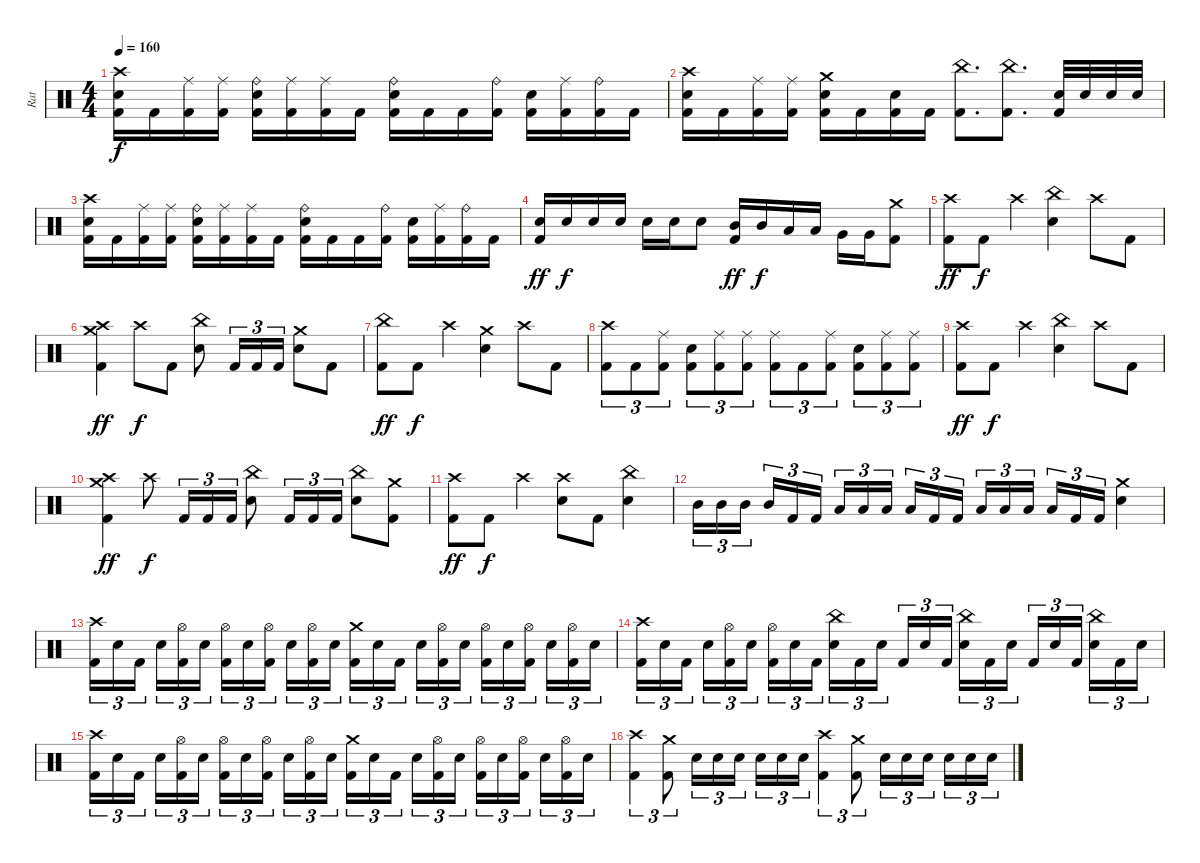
\track ("Rat" "Rat") {instrument percussion}
\staff {score}
\articulation defaults
\ts (4 4)
\tempo 160
\clef neutral
\ks c
("Crash high (hit)" "Electric Snare (hit)" "Kick (hit) 2").16{dy f} "Kick (hit) 2".16 ("Ride (middle)" "Kick (hit) 2").16 ("Ride (middle)" "Kick (hit) 2").16 ("Ride (bell)" "Electric Snare (hit)" "Kick (hit) 2").16 ("Ride (middle)" "Kick (hit) 2").16 ("Ride (middle)" "Kick (hit) 2").16 "Kick (hit) 2".16 ("Ride (bell)" "Electric Snare (hit)" "Kick (hit) 2").16 "Kick (hit) 2".16 "Kick (hit) 2".16 ("Ride (bell)" "Kick (hit) 2").16 ("Electric Snare (hit)" "Kick (hit) 2").16 ("Ride (middle)" "Kick (hit) 2").16 ("Ride (bell)" "Kick (hit) 2").16 "Kick (hit) 2".16 |
("Crash high (hit)" "Electric Snare (hit)" "Kick (hit) 2").16 "Kick (hit) 2".16 ("Ride (middle)" "Kick (hit) 2").16 ("Ride (middle)" "Kick (hit) 2").16 ("Crash medium (hit)" "Electric Snare (hit)" "Kick (hit) 2").16 "Kick (hit) 2".16 ("Electric Snare (hit)" "Kick (hit) 2").16 "Kick (hit) 2".16 ("China (hit)" "Kick (hit) 2").8{d} ("China (hit)" "Kick (hit) 2").8{d} ("Electric Snare (hit)" "Kick (hit) 2").32 "Electric Snare (hit)".32 "Electric Snare (hit)".32 "Electric Snare (hit)".32 |
("Crash high (hit)" "Electric Snare (hit)" "Kick (hit) 2").16 "Kick (hit) 2".16 ("Ride (middle)" "Kick (hit) 2").16 ("Ride (middle)" "Kick (hit) 2").16 ("Ride (bell)" "Electric Snare (hit)" "Kick (hit) 2").16 ("Ride (middle)" "Kick (hit) 2").16 ("Ride (middle)" "Kick (hit) 2").16 "Kick (hit) 2".16 ("Ride (bell)" "Electric Snare (hit)" "Kick (hit) 2").16 "Kick (hit) 2".16 "Kick (hit) 2".16 ("Ride (bell)" "Kick (hit) 2").16 ("Electric Snare (hit)" "Kick (hit) 2").16 ("Ride (middle)" "Kick (hit) 2").16 ("Ride (bell)" "Kick (hit) 2").16 "Kick (hit) 2".16 |
("Electric Snare (hit)" "Kick (hit) 2").16{dy ff} "Electric Snare (hit)".16{dy f} "Electric Snare (hit)".16 "Electric Snare (hit)".16 "Electric Snare (hit)".16 "Electric Snare (hit)".16 "Electric Snare (hit)".8 ("Mid Tom (hit)" "Kick (hit) 2").16{dy ff} "Mid Tom (hit)".16{dy f} "Low Tom (hit)".16 "Low Tom (hit)".16 "Very Low Tom (hit)".16 "Very Low Tom (hit)".16 ("Crash medium (hit)" "Kick (hit) 2").8 |
("Crash high (hit)" "Kick (hit) 2").8{dy ff} "Kick (hit) 2".8{dy f} "Crash high (hit)".4 ("China (hit)" "Electric Snare (hit)").4 "Crash high (hit)".8 "Kick (hit) 2".8 |
("Crash high (hit)" "Crash medium (hit)" "Kick (hit) 2").4{dy ff} "Crash high (hit)".8{dy f} "Kick (hit) 2".8 ("China (hit)" "Electric Snare (hit)").8 "Kick (hit) 2".16{tu (3 2)} "Kick (hit) 2".16{tu (3 2)} "Kick (hit) 2".16{tu (3 2)} ("Crash medium (hit)" "Electric Snare (hit)").8 "Kick (hit) 2".8 |
("China (hit)" "Kick (hit) 2").8{dy ff} "Kick (hit) 2".8{dy f} "Crash high (hit)".4 ("Crash medium (hit)" "Electric Snare (hit)").4 "Crash high (hit)".8 "Kick (hit) 2".8 |
("Crash high (hit)" "Kick (hit) 2").8{tu (3 2)} "Kick (hit) 2".8{tu (3 2)} ("Ride (middle)" "Kick (hit) 2").8{tu (3 2)} ("Electric Snare (hit)" "Kick (hit) 2").8{tu (3 2)} ("Ride (middle)" "Kick (hit) 2").8{tu (3 2)} ("Ride (middle)" "Kick (hit) 2").8{tu (3 2)} ("Ride (middle)" "Kick (hit) 2").8{tu (3 2)} "Kick (hit) 2".8{tu (3 2)} ("Ride (middle)" "Kick (hit) 2").8{tu (3 2)} ("Electric Snare (hit)" "Kick (hit) 2").8{tu (3 2)} ("Ride (middle)" "Kick (hit) 2").8{tu (3 2)} ("Ride (middle)" "Kick (hit) 2").8{tu (3 2)} |
("Crash high (hit)" "Kick (hit) 2").8{dy ff} "Kick (hit) 2".8{dy f} "Crash high (hit)".4 ("China (hit)" "Electric Snare (hit)").4 "Crash high (hit)".8 "Kick (hit) 2".8 |
("Crash high (hit)" "Crash medium (hit)" "Kick (hit) 2").4{dy ff} "Crash high (hit)".8{dy f} "Kick (hit) 2".16{tu (3 2)} "Kick (hit) 2".16{tu (3 2)} "Kick (hit) 2".16{tu (3 2)} ("China (hit)" "Electric Snare (hit)").8 "Kick (hit) 2".16{tu (3 2)} "Kick (hit) 2".16{tu (3 2)} "Kick (hit) 2".16{tu (3 2)} ("China (hit)" "Electric Snare (hit)").8 ("Crash medium (hit)" "Kick (hit) 2").8 |
("Crash high (hit)" "Kick (hit) 2").8{dy ff} "Kick (hit) 2".8{dy f} "Crash high (hit)".4 ("Crash high (hit)" "Electric Snare (hit)").8 "Kick (hit) 2".8 ("China (hit)" "Electric Snare (hit)").4 |
"Mid Tom (hit)".16{tu (3 2)} "Mid Tom (hit)".16{tu (3 2)} "Mid Tom (hit)".16{tu (3 2) beam splitsecondary} "Mid Tom (hit)".16{tu (3 2)} "Kick (hit) 2".16{tu (3 2)} "Kick (hit) 2".16{tu (3 2)} "Low Tom (hit)".16{tu (3 2)} "Low Tom (hit)".16{tu (3 2)} "Low Tom (hit)".16{tu (3 2) beam splitsecondary} "Low Tom (hit)".16{tu (3 2)} "Kick (hit) 2".16{tu (3 2)} "Kick (hit) 2".16{tu (3 2)} "Low Tom (hit)".16{tu (3 2)} "Low Tom (hit)".16{tu (3 2)} "Low Tom (hit)".16{tu (3 2) beam splitsecondary} "Low Tom (hit)".16{tu (3 2)} "Kick (hit) 2".16{tu (3 2)} "Kick (hit) 2".16{tu (3 2)} ("Crash medium (hit)" "Electric Snare (hit)").4 |
("Crash high (hit)" "Kick (hit) 2").16{tu (3 2)} "Electric Snare (hit)".16{tu (3 2)} "Kick (hit) 2".16{tu (3 2) beam splitsecondary} "Electric Snare (hit)".16{tu (3 2)} ("Hi-Hat (open)" "Kick (hit) 2").16{tu (3 2)} "Electric Snare (hit)".16{tu (3 2)} ("Hi-Hat (open)" "Kick (hit) 2").16{tu (3 2)} "Electric Snare (hit)".16{tu (3 2)} ("Hi-Hat (open)" "Kick (hit) 2").16{tu (3 2) beam splitsecondary} "Electric Snare (hit)".16{tu (3 2)} ("Hi-Hat (open)" "Kick (hit) 2").16{tu (3 2)} "Electric Snare (hit)".16{tu (3 2)} ("Crash medium (hit)" "Kick (hit) 2").16{tu (3 2)} "Electric Snare (hit)".16{tu (3 2)} "Kick (hit) 2".16{tu (3 2) beam splitsecondary} "Electric Snare (hit)".16{tu (3 2)} ("Hi-Hat (open)" "Kick (hit) 2").16{tu (3 2)} "Electric Snare (hit)".16{tu (3 2)} ("Hi-Hat (open)" "Kick (hit) 2").16{tu (3 2)} "Electric Snare (hit)".16{tu (3 2)} ("Hi-Hat (open)" "Kick (hit) 2").16{tu (3 2) beam splitsecondary} "Electric Snare (hit)".16{tu (3 2)} ("Hi-Hat (open)" "Kick (hit) 2").16{tu (3 2)} "Electric Snare (hit)".16{tu (3 2)} |
("Crash high (hit)" "Kick (hit) 2").16{tu (3 2)} "Electric Snare (hit)".16{tu (3 2)} "Kick (hit) 2".16{tu (3 2) beam splitsecondary} "Electric Snare (hit)".16{tu (3 2)} ("Hi-Hat (open)" "Kick (hit) 2").16{tu (3 2)} "Electric Snare (hit)".16{tu (3 2)} ("Hi-Hat (open)" "Kick (hit) 2").16{tu (3 2)} "Electric Snare (hit)".16{tu (3 2)} "Kick (hit) 2".16{tu (3 2) beam splitsecondary} ("China (hit)" "Electric Snare (hit)").16{tu (3 2)} "Kick (hit) 2".16{tu (3 2)} "Electric Snare (hit)".16{tu (3 2)} "Kick (hit) 2".16{tu (3 2)} "Electric Snare (hit)".16{tu (3 2)} "Kick (hit) 2".16{tu (3 2) beam splitsecondary} ("China (hit)" "Electric Snare (hit)").16{tu (3 2)} "Kick (hit) 2".16{tu (3 2)} "Electric Snare (hit)".16{tu (3 2)} "Kick (hit) 2".16{tu (3 2)} "Electric Snare (hit)".16{tu (3 2)} "Kick (hit) 2".16{tu (3 2) beam splitsecondary} ("China (hit)" "Electric Snare (hit)").16{tu (3 2)} "Kick (hit) 2".16{tu (3 2)} "Electric Snare (hit)".16{tu (3 2)} |
("Crash high (hit)" "Kick (hit) 2").16{tu (3 2)} "Electric Snare (hit)".16{tu (3 2)} "Kick (hit) 2".16{tu (3 2) beam splitsecondary} "Electric Snare (hit)".16{tu (3 2)} ("Hi-Hat (open)" "Kick (hit) 2").16{tu (3 2)} "Electric Snare (hit)".16{tu (3 2)} ("Hi-Hat (open)" "Kick (hit) 2").16{tu (3 2)} "Electric Snare (hit)".16{tu (3 2)} ("Hi-Hat (open)" "Kick (hit) 2").16{tu (3 2) beam splitsecondary} "Electric Snare (hit)".16{tu (3 2)} ("Hi-Hat (open)" "Kick (hit) 2").16{tu (3 2)} "Electric Snare (hit)".16{tu (3 2)} ("Crash medium (hit)" "Kick (hit) 2").16{tu (3 2)} "Electric Snare (hit)".16{tu (3 2)} "Kick (hit) 2".16{tu (3 2) beam splitsecondary} "Electric Snare (hit)".16{tu (3 2)} ("Hi-Hat (open)" "Kick (hit) 2").16{tu (3 2)} "Electric Snare (hit)".16{tu (3 2)} ("Hi-Hat (open)" "Kick (hit) 2").16{tu (3 2)} "Electric Snare (hit)".16{tu (3 2)} ("Hi-Hat (open)" "Kick (hit) 2").16{tu (3 2) beam splitsecondary} "Electric Snare (hit)".16{tu (3 2)} ("Hi-Hat (open)" "Kick (hit) 2").16{tu (3 2)} "Electric Snare (hit)".16{tu (3 2)} |
("Crash high (hit)" "Kick (hit) 2").4{tu (3 2)} ("Crash medium (hit)" "Kick (hit) 2").8{tu (3 2)} "Electric Snare (hit)".16{tu (3 2)} "Electric Snare (hit)".16{tu (3 2)} "Electric Snare (hit)".16{tu (3 2) beam splitsecondary} "Electric Snare (hit)".16{tu (3 2)} "Electric Snare (hit)".16{tu (3 2)} "Electric Snare (hit)".16{tu (3 2)} ("Crash high (hit)" "Kick (hit) 2").4{tu (3 2)} ("Crash medium (hit)" "Kick (hit) 2").8{tu (3 2)} "Electric Snare (hit)".16{tu (3 2)} "Electric Snare (hit)".16{tu (3 2)} "Electric Snare (hit)".16{tu (3 2) beam splitsecondary} "Electric Snare (hit)".16{tu (3 2)} "Electric Snare (hit)".16{tu (3 2)} "Electric Snare (hit)".16{tu (3 2)}
